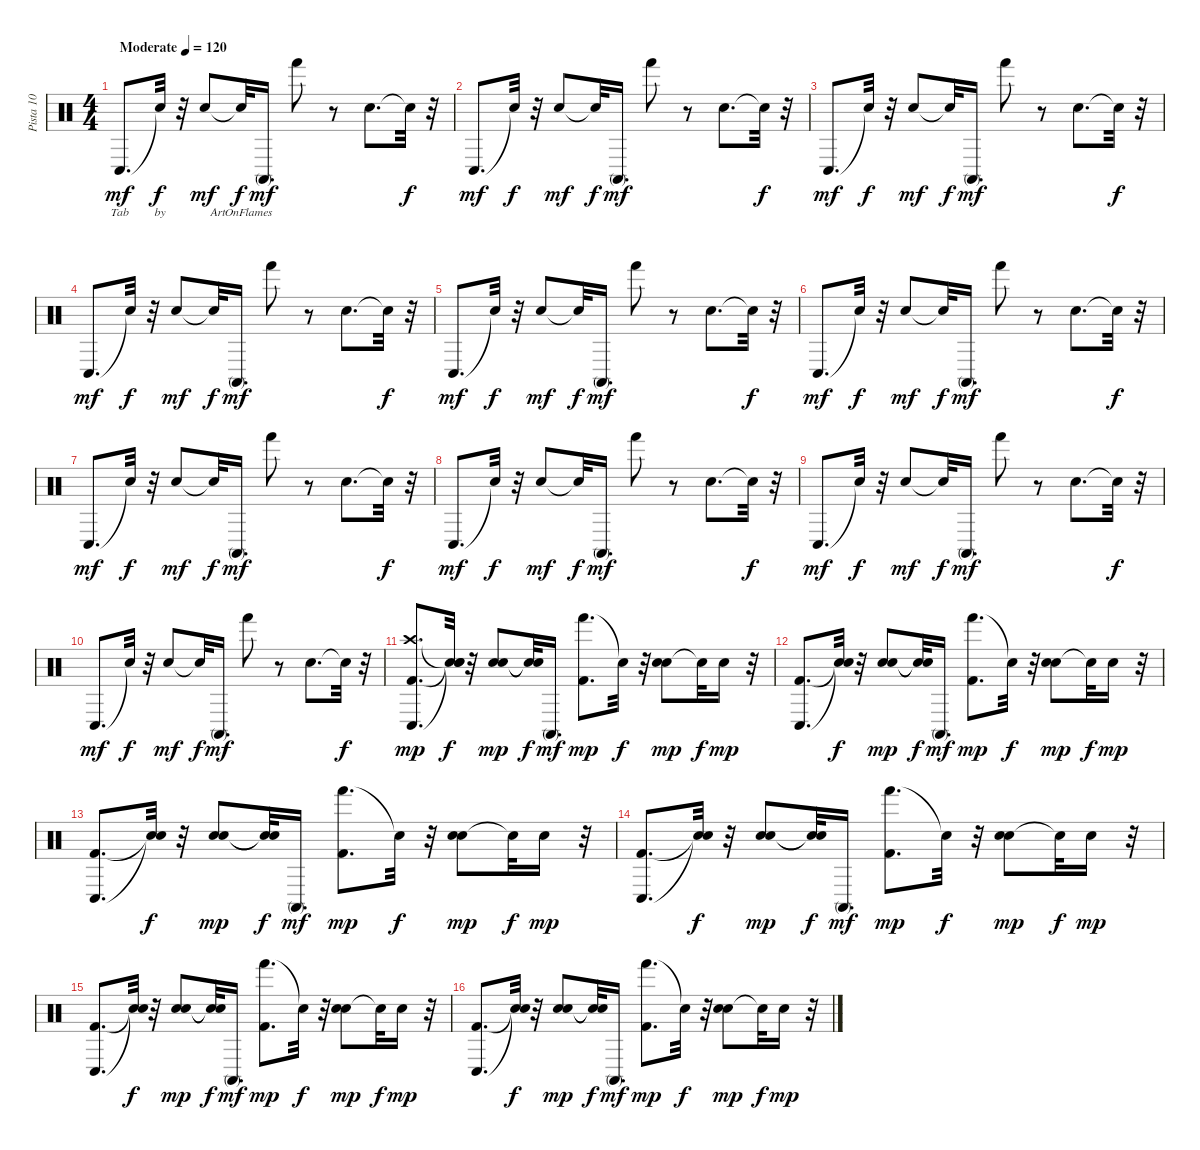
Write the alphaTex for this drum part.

\track ("Pista 10" "Pista 10") {instrument percussion}
\staff {score}
\articulation defaults
\ts (4 4)
\tempo (120 "Moderate")
\clef neutral
\ks c "Conga low (hit)".8{d lyrics (0 "Tab") lyrics (1 "") lyrics (2 "") lyrics (3 "") lyrics (4 "") dy mf} "Snare (hit)"{t}.32{lyrics (0 "by") lyrics (1 "") lyrics (2 "") lyrics (3 "") lyrics (4 "") dy f}
r.32 "Hand Clap (hit)".8{lyrics (0 "") lyrics (1 "") lyrics (2 "") lyrics (3 "") lyrics (4 "") dy mf} "Snare (hit)"{t}.32{lyrics (0 "ArtOnFlames") lyrics (1 "") lyrics (2 "") lyrics (3 "") lyrics (4 "") dy f} "Conga high (mute)".16{d dy mf} "Hand (hit)".8 r.8 "Hand Clap (hit)".8{d} "Snare (hit)"{t}.32{dy f} r.32 |
"Conga low (hit)".8{d dy mf} "Snare (hit)"{t}.32{dy f} r.32 "Hand Clap (hit)".8{dy mf} "Snare (hit)"{t}.32{dy f} "Conga high (mute)".16{d dy mf} "Hand (hit)".8 r.8 "Hand Clap (hit)".8{d} "Snare (hit)"{t}.32{dy f} r.32 |
"Conga low (hit)".8{d dy mf} "Snare (hit)"{t}.32{dy f} r.32 "Hand Clap (hit)".8{dy mf} "Snare (hit)"{t}.32{dy f} "Conga high (mute)".16{d dy mf} "Hand (hit)".8 r.8 "Hand Clap (hit)".8{d} "Snare (hit)"{t}.32{dy f} r.32 |
"Conga low (hit)".8{d dy mf} "Snare (hit)"{t}.32{dy f} r.32 "Hand Clap (hit)".8{dy mf} "Snare (hit)"{t}.32{dy f} "Conga high (mute)".16{d dy mf} "Hand (hit)".8 r.8 "Hand Clap (hit)".8{d} "Snare (hit)"{t}.32{dy f} r.32 |
"Conga low (hit)".8{d dy mf} "Snare (hit)"{t}.32{dy f} r.32 "Hand Clap (hit)".8{dy mf} "Snare (hit)"{t}.32{dy f} "Conga high (mute)".16{d dy mf} "Hand (hit)".8 r.8 "Hand Clap (hit)".8{d} "Snare (hit)"{t}.32{dy f} r.32 |
"Conga low (hit)".8{d dy mf} "Snare (hit)"{t}.32{dy f} r.32 "Hand Clap (hit)".8{dy mf} "Snare (hit)"{t}.32{dy f} "Conga high (mute)".16{d dy mf} "Hand (hit)".8 r.8 "Hand Clap (hit)".8{d} "Snare (hit)"{t}.32{dy f} r.32 |
"Conga low (hit)".8{d dy mf} "Snare (hit)"{t}.32{dy f} r.32 "Hand Clap (hit)".8{dy mf} "Snare (hit)"{t}.32{dy f} "Conga high (mute)".16{d dy mf} "Hand (hit)".8 r.8 "Hand Clap (hit)".8{d} "Snare (hit)"{t}.32{dy f} r.32 |
"Conga low (hit)".8{d dy mf} "Snare (hit)"{t}.32{dy f} r.32 "Hand Clap (hit)".8{dy mf} "Snare (hit)"{t}.32{dy f} "Conga high (mute)".16{d dy mf} "Hand (hit)".8 r.8 "Hand Clap (hit)".8{d} "Snare (hit)"{t}.32{dy f} r.32 |
"Conga low (hit)".8{d dy mf} "Snare (hit)"{t}.32{dy f} r.32 "Hand Clap (hit)".8{dy mf} "Snare (hit)"{t}.32{dy f} "Conga high (mute)".16{d dy mf} "Hand (hit)".8 r.8 "Hand Clap (hit)".8{d} "Snare (hit)"{t}.32{dy f} r.32 |
"Conga low (hit)".8{d dy mf} "Snare (hit)"{t}.32{dy f} r.32 "Hand Clap (hit)".8{dy mf} "Snare (hit)"{t}.32{dy f} "Conga high (mute)".16{d dy mf} "Hand (hit)".8 r.8 "Hand Clap (hit)".8{d} "Snare (hit)"{t}.32{dy f} r.32 |
("Conga low (hit)" "Kick (hit) 2" "Crash high (hit)").8{d dy mp} ("Snare (hit)"{t} "Snare (hit)"{t} "Snare (hit)"{t}).32{dy f} r.32 ("Hand Clap (hit)" "Electric Snare (hit)").8{dy mp} ("Snare (hit)"{t} "Snare (hit)"{t}).32{dy f} "Conga high (mute)".16{d dy mf} ("Hand (hit)" "Kick (hit) 2").8{d dy mp} "Snare (hit)"{t}.32{dy f} r.32 ("Hand Clap (hit)" "Electric Snare (hit)").8{dy mp} "Snare (hit)"{t}.32{dy f} "Electric Snare (hit)".16{dy mp} r.32 |
("Conga low (hit)" "Kick (hit) 2").8{d} ("Snare (hit)"{t} "Snare (hit)"{t}).32{dy f} r.32 ("Hand Clap (hit)" "Electric Snare (hit)").8{dy mp} ("Snare (hit)"{t} "Snare (hit)"{t}).32{dy f} "Conga high (mute)".16{d dy mf} ("Hand (hit)" "Kick (hit) 2").8{d dy mp} "Snare (hit)"{t}.32{dy f} r.32 ("Hand Clap (hit)" "Electric Snare (hit)").8{dy mp} "Snare (hit)"{t}.32{dy f} "Electric Snare (hit)".16{dy mp} r.32 |
("Conga low (hit)" "Kick (hit) 2").8{d} ("Snare (hit)"{t} "Snare (hit)"{t}).32{dy f} r.32 ("Hand Clap (hit)" "Electric Snare (hit)").8{dy mp} ("Snare (hit)"{t} "Snare (hit)"{t}).32{dy f} "Conga high (mute)".16{d dy mf} ("Hand (hit)" "Kick (hit) 2").8{d dy mp} "Snare (hit)"{t}.32{dy f} r.32 ("Hand Clap (hit)" "Electric Snare (hit)").8{dy mp} "Snare (hit)"{t}.32{dy f} "Electric Snare (hit)".16{dy mp} r.32 |
("Conga low (hit)" "Kick (hit) 2").8{d} ("Snare (hit)"{t} "Snare (hit)"{t}).32{dy f} r.32 ("Hand Clap (hit)" "Electric Snare (hit)").8{dy mp} ("Snare (hit)"{t} "Snare (hit)"{t}).32{dy f} "Conga high (mute)".16{d dy mf} ("Hand (hit)" "Kick (hit) 2").8{d dy mp} "Snare (hit)"{t}.32{dy f} r.32 ("Hand Clap (hit)" "Electric Snare (hit)").8{dy mp} "Snare (hit)"{t}.32{dy f} "Electric Snare (hit)".16{dy mp} r.32 |
("Conga low (hit)" "Kick (hit) 2").8{d} ("Snare (hit)"{t} "Snare (hit)"{t}).32{dy f} r.32 ("Hand Clap (hit)" "Electric Snare (hit)").8{dy mp} ("Snare (hit)"{t} "Snare (hit)"{t}).32{dy f} "Conga high (mute)".16{d dy mf} ("Hand (hit)" "Kick (hit) 2").8{d dy mp} "Snare (hit)"{t}.32{dy f} r.32 ("Hand Clap (hit)" "Electric Snare (hit)").8{dy mp} "Snare (hit)"{t}.32{dy f} "Electric Snare (hit)".16{dy mp} r.32 |
("Conga low (hit)" "Kick (hit) 2").8{d} ("Snare (hit)"{t} "Snare (hit)"{t}).32{dy f} r.32 ("Hand Clap (hit)" "Electric Snare (hit)").8{dy mp} ("Snare (hit)"{t} "Snare (hit)"{t}).32{dy f} "Conga high (mute)".16{d dy mf} ("Hand (hit)" "Kick (hit) 2").8{d dy mp} "Snare (hit)"{t}.32{dy f} r.32 ("Hand Clap (hit)" "Electric Snare (hit)").8{dy mp} "Snare (hit)"{t}.32{dy f} "Electric Snare (hit)".16{dy mp} r.32
